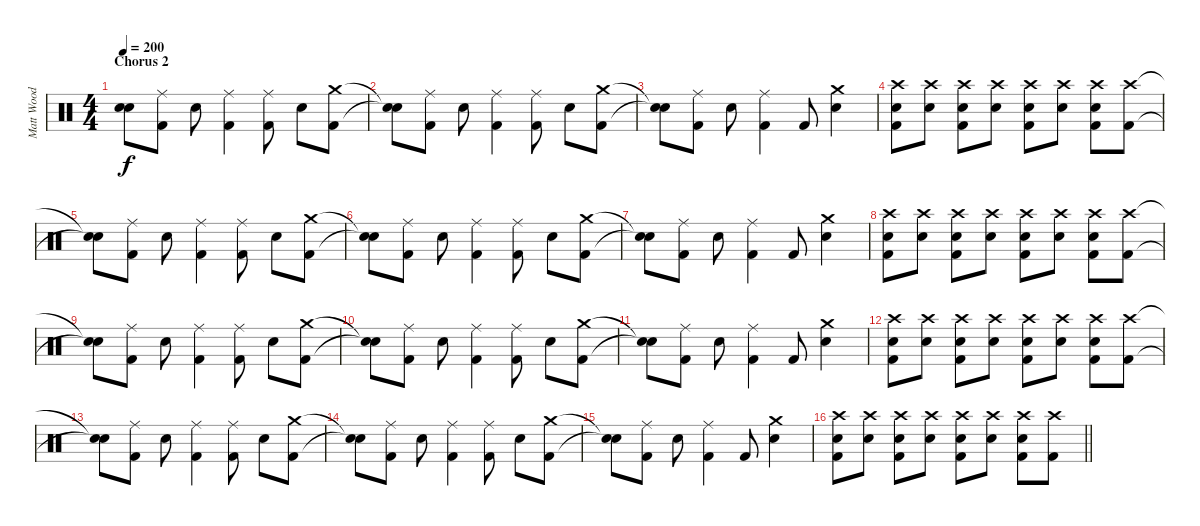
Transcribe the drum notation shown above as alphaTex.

\track ("Matt Wood" "Matt Wood") {instrument percussion}
\staff {score}
\articulation defaults
\ts (4 4)
\section ("" "Chorus 2")
\tempo 200
\clef neutral
\ks c
("Snare (hit)"{t} "Snare (hit)"{t}).8{dy f} ("Ride (middle)" "Kick (hit) 2").8 "Snare (hit) 2".8 ("Ride (middle)" "Kick (hit) 2").4 ("Ride (middle)" "Kick (hit) 2").8 "Snare (hit) 2".8 ("Crash medium (hit)" "Kick (hit) 2").8 |
("Snare (hit)"{t} "Snare (hit)"{t}).8 ("Ride (middle)" "Kick (hit) 2").8 "Snare (hit) 2".8 ("Ride (middle)" "Kick (hit) 2").4 ("Ride (middle)" "Kick (hit) 2").8 "Snare (hit) 2".8 ("Crash medium (hit)" "Kick (hit) 2").8 |
("Snare (hit)"{t} "Snare (hit)"{t}).8 ("Ride (middle)" "Kick (hit) 2").8 "Snare (hit) 2".8 ("Ride (middle)" "Kick (hit) 2").4 "Kick (hit) 2".8 ("Crash medium (hit)" "Snare (hit) 2").4 |
("Crash high (hit)" "Snare (hit) 2" "Kick (hit) 2").8 ("Crash high (hit)" "Snare (hit) 2").8 ("Crash high (hit)" "Snare (hit) 2" "Kick (hit) 2").8 ("Crash high (hit)" "Snare (hit) 2").8 ("Crash high (hit)" "Snare (hit) 2" "Kick (hit) 2").8 ("Crash high (hit)" "Snare (hit) 2").8 ("Crash high (hit)" "Snare (hit) 2" "Kick (hit) 2").8 ("Crash high (hit)" "Kick (hit) 2").8 |
("Snare (hit)"{t} "Snare (hit)"{t}).8 ("Ride (middle)" "Kick (hit) 2").8 "Snare (hit) 2".8 ("Ride (middle)" "Kick (hit) 2").4 ("Ride (middle)" "Kick (hit) 2").8 "Snare (hit) 2".8 ("Crash medium (hit)" "Kick (hit) 2").8 |
("Snare (hit)"{t} "Snare (hit)"{t}).8 ("Ride (middle)" "Kick (hit) 2").8 "Snare (hit) 2".8 ("Ride (middle)" "Kick (hit) 2").4 ("Ride (middle)" "Kick (hit) 2").8 "Snare (hit) 2".8 ("Crash medium (hit)" "Kick (hit) 2").8 |
("Snare (hit)"{t} "Snare (hit)"{t}).8 ("Ride (middle)" "Kick (hit) 2").8 "Snare (hit) 2".8 ("Ride (middle)" "Kick (hit) 2").4 "Kick (hit) 2".8 ("Crash medium (hit)" "Snare (hit) 2").4 |
("Crash high (hit)" "Snare (hit) 2" "Kick (hit) 2").8 ("Crash high (hit)" "Snare (hit) 2").8 ("Crash high (hit)" "Snare (hit) 2" "Kick (hit) 2").8 ("Crash high (hit)" "Snare (hit) 2").8 ("Crash high (hit)" "Snare (hit) 2" "Kick (hit) 2").8 ("Crash high (hit)" "Snare (hit) 2").8 ("Crash high (hit)" "Snare (hit) 2" "Kick (hit) 2").8 ("Crash high (hit)" "Kick (hit) 2").8 |
("Snare (hit)"{t} "Snare (hit)"{t}).8 ("Ride (middle)" "Kick (hit) 2").8 "Snare (hit) 2".8 ("Ride (middle)" "Kick (hit) 2").4 ("Ride (middle)" "Kick (hit) 2").8 "Snare (hit) 2".8 ("Crash medium (hit)" "Kick (hit) 2").8 |
("Snare (hit)"{t} "Snare (hit)"{t}).8 ("Ride (middle)" "Kick (hit) 2").8 "Snare (hit) 2".8 ("Ride (middle)" "Kick (hit) 2").4 ("Ride (middle)" "Kick (hit) 2").8 "Snare (hit) 2".8 ("Crash medium (hit)" "Kick (hit) 2").8 |
("Snare (hit)"{t} "Snare (hit)"{t}).8 ("Ride (middle)" "Kick (hit) 2").8 "Snare (hit) 2".8 ("Ride (middle)" "Kick (hit) 2").4 "Kick (hit) 2".8 ("Crash medium (hit)" "Snare (hit) 2").4 |
("Crash high (hit)" "Snare (hit) 2" "Kick (hit) 2").8 ("Crash high (hit)" "Snare (hit) 2").8 ("Crash high (hit)" "Snare (hit) 2" "Kick (hit) 2").8 ("Crash high (hit)" "Snare (hit) 2").8 ("Crash high (hit)" "Snare (hit) 2" "Kick (hit) 2").8 ("Crash high (hit)" "Snare (hit) 2").8 ("Crash high (hit)" "Snare (hit) 2" "Kick (hit) 2").8 ("Crash high (hit)" "Kick (hit) 2").8 |
("Snare (hit)"{t} "Snare (hit)"{t}).8 ("Ride (middle)" "Kick (hit) 2").8 "Snare (hit) 2".8 ("Ride (middle)" "Kick (hit) 2").4 ("Ride (middle)" "Kick (hit) 2").8 "Snare (hit) 2".8 ("Crash medium (hit)" "Kick (hit) 2").8 |
("Snare (hit)"{t} "Snare (hit)"{t}).8 ("Ride (middle)" "Kick (hit) 2").8 "Snare (hit) 2".8 ("Ride (middle)" "Kick (hit) 2").4 ("Ride (middle)" "Kick (hit) 2").8 "Snare (hit) 2".8 ("Crash medium (hit)" "Kick (hit) 2").8 |
("Snare (hit)"{t} "Snare (hit)"{t}).8 ("Ride (middle)" "Kick (hit) 2").8 "Snare (hit) 2".8 ("Ride (middle)" "Kick (hit) 2").4 "Kick (hit) 2".8 ("Crash medium (hit)" "Snare (hit) 2").4 |
\barLineRight lightlight
("Crash high (hit)" "Snare (hit) 2" "Kick (hit) 2").8 ("Crash high (hit)" "Snare (hit) 2").8 ("Crash high (hit)" "Snare (hit) 2" "Kick (hit) 2").8 ("Crash high (hit)" "Snare (hit) 2").8 ("Crash high (hit)" "Snare (hit) 2" "Kick (hit) 2").8 ("Crash high (hit)" "Snare (hit) 2").8 ("Crash high (hit)" "Snare (hit) 2" "Kick (hit) 2").8 ("Crash high (hit)" "Kick (hit) 2").8
